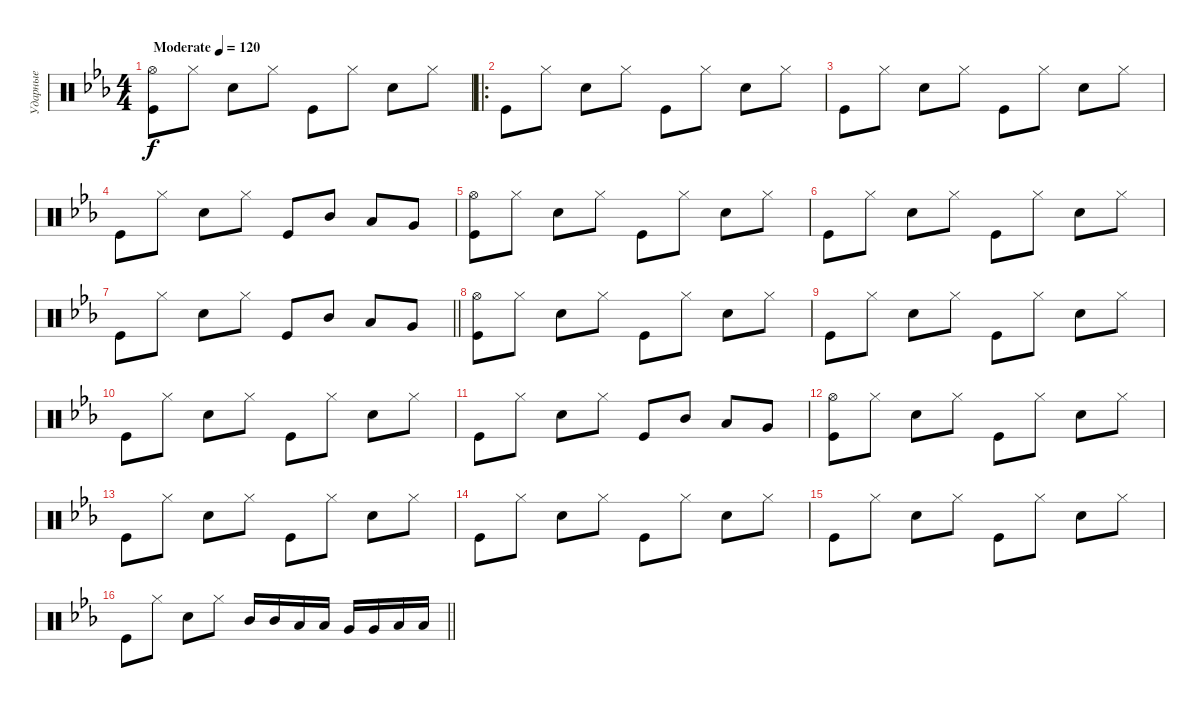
\track ("Ударные" "Ударные") {instrument percussion}
\staff {score}
\articulation defaults
\ts (4 4)
\tempo (120 "Moderate")
\clef neutral
\ks cminor
("Kick (hit)" "Hi-Hat (open)").8{dy f} "Hi-Hat (closed)".8 "Snare (hit) 2".8 "Hi-Hat (closed)".8 "Kick (hit)".8 "Hi-Hat (closed)".8 "Snare (hit) 2".8 "Hi-Hat (closed)".8 |
\ro "Kick (hit)".8 "Hi-Hat (closed)".8 "Snare (hit) 2".8 "Hi-Hat (closed)".8 "Kick (hit)".8 "Hi-Hat (closed)".8 "Snare (hit) 2".8 "Hi-Hat (closed)".8
|
"Kick (hit)".8 "Hi-Hat (closed)".8 "Snare (hit) 2".8 "Hi-Hat (closed)".8 "Kick (hit)".8 "Hi-Hat (closed)".8 "Snare (hit) 2".8 "Hi-Hat (closed)".8 |
"Kick (hit)".8 "Hi-Hat (closed)".8 "Snare (hit) 2".8 "Hi-Hat (closed)".8 "Kick (hit)".8 "Mid Tom (hit)".8 "Low Tom (hit)".8 "Very Low Tom (hit)".8 |
("Kick (hit)" "Hi-Hat (open)").8 "Hi-Hat (closed)".8 "Snare (hit) 2".8 "Hi-Hat (closed)".8 "Kick (hit)".8 "Hi-Hat (closed)".8 "Snare (hit) 2".8 "Hi-Hat (closed)".8 |
"Kick (hit)".8 "Hi-Hat (closed)".8 "Snare (hit) 2".8 "Hi-Hat (closed)".8 "Kick (hit)".8 "Hi-Hat (closed)".8 "Snare (hit) 2".8 "Hi-Hat (closed)".8 |
\barLineRight lightlight "Kick (hit)".8 "Hi-Hat (closed)".8 "Snare (hit) 2".8 "Hi-Hat (closed)".8 "Kick (hit)".8 "Mid Tom (hit)".8 "Low Tom (hit)".8 "Very Low Tom (hit)".8
|
("Kick (hit)" "Hi-Hat (open)").8 "Hi-Hat (closed)".8 "Snare (hit) 2".8 "Hi-Hat (closed)".8 "Kick (hit)".8 "Hi-Hat (closed)".8 "Snare (hit) 2".8 "Hi-Hat (closed)".8 |
"Kick (hit)".8 "Hi-Hat (closed)".8 "Snare (hit) 2".8 "Hi-Hat (closed)".8 "Kick (hit)".8 "Hi-Hat (closed)".8 "Snare (hit) 2".8 "Hi-Hat (closed)".8 |
"Kick (hit)".8 "Hi-Hat (closed)".8 "Snare (hit) 2".8 "Hi-Hat (closed)".8 "Kick (hit)".8 "Hi-Hat (closed)".8 "Snare (hit) 2".8 "Hi-Hat (closed)".8 |
"Kick (hit)".8 "Hi-Hat (closed)".8 "Snare (hit) 2".8 "Hi-Hat (closed)".8 "Kick (hit)".8 "Mid Tom (hit)".8 "Low Tom (hit)".8 "Very Low Tom (hit)".8 |
("Kick (hit)" "Hi-Hat (open)").8 "Hi-Hat (closed)".8 "Snare (hit) 2".8 "Hi-Hat (closed)".8 "Kick (hit)".8 "Hi-Hat (closed)".8 "Snare (hit) 2".8 "Hi-Hat (closed)".8 |
"Kick (hit)".8 "Hi-Hat (closed)".8 "Snare (hit) 2".8 "Hi-Hat (closed)".8 "Kick (hit)".8 "Hi-Hat (closed)".8 "Snare (hit) 2".8 "Hi-Hat (closed)".8 |
"Kick (hit)".8 "Hi-Hat (closed)".8 "Snare (hit) 2".8 "Hi-Hat (closed)".8 "Kick (hit)".8 "Hi-Hat (closed)".8 "Snare (hit) 2".8 "Hi-Hat (closed)".8 |
"Kick (hit)".8 "Hi-Hat (closed)".8 "Snare (hit) 2".8 "Hi-Hat (closed)".8 "Kick (hit)".8 "Hi-Hat (closed)".8 "Snare (hit) 2".8 "Hi-Hat (closed)".8 |
\barLineRight lightlight "Kick (hit)".8 "Hi-Hat (closed)".8 "Snare (hit) 2".8 "Hi-Hat (closed)".8 "Mid Tom (hit)".16 "Mid Tom (hit)".16 "Low Tom (hit)".16 "Low Tom (hit)".16 "Very Low Tom (hit)".16 "Very Low Tom (hit)".16 "Low Floor Tom (hit)".16 "Low Floor Tom (hit)".16
